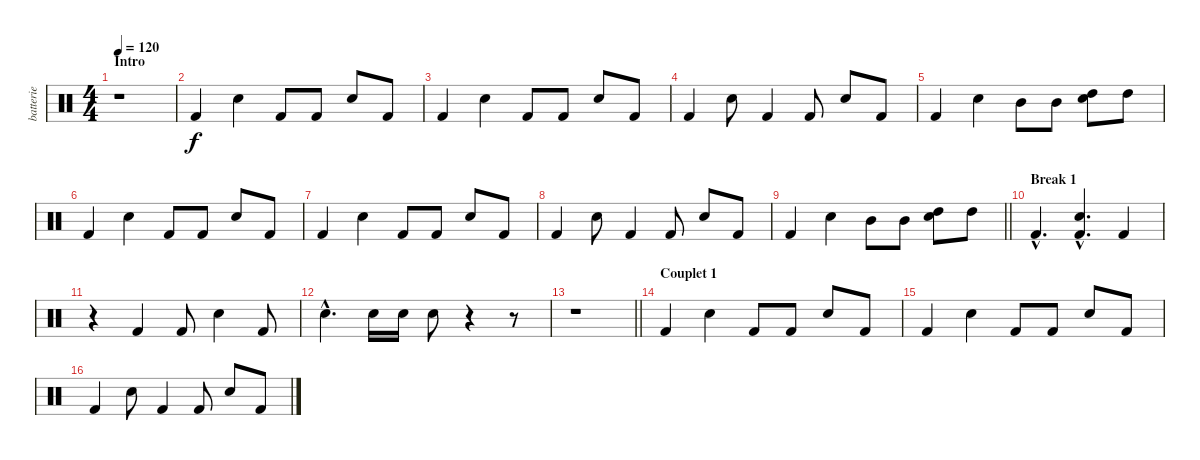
\track ("batterie" "batterie") {instrument percussion}
\staff {score}
\articulation defaults
\ts (4 4)
\section ("" "Intro")
\tempo 120
\clef neutral
\ks c
r.1{dy f} |
"Kick (hit) 2".4 "Electric Snare (hit)".4 "Kick (hit) 2".8 "Kick (hit) 2".8 "Electric Snare (hit)".8 "Kick (hit) 2".8 |
"Kick (hit) 2".4 "Electric Snare (hit)".4 "Kick (hit) 2".8 "Kick (hit) 2".8 "Electric Snare (hit)".8 "Kick (hit) 2".8 |
"Kick (hit) 2".4 "Electric Snare (hit)".8 "Kick (hit) 2".4 "Kick (hit) 2".8 "Electric Snare (hit)".8 "Kick (hit) 2".8 |
"Kick (hit) 2".4 "Electric Snare (hit)".4 "Mid Tom (hit)".8 "Mid Tom (hit)".8 ("Electric Snare (hit)" "High Tom (hit)").8 "High Tom (hit)".8 |
"Kick (hit) 2".4 "Electric Snare (hit)".4 "Kick (hit) 2".8 "Kick (hit) 2".8 "Electric Snare (hit)".8 "Kick (hit) 2".8 |
"Kick (hit) 2".4 "Electric Snare (hit)".4 "Kick (hit) 2".8 "Kick (hit) 2".8 "Electric Snare (hit)".8 "Kick (hit) 2".8 |
"Kick (hit) 2".4 "Electric Snare (hit)".8 "Kick (hit) 2".4 "Kick (hit) 2".8 "Electric Snare (hit)".8 "Kick (hit) 2".8 |
\barLineRight lightlight "Kick (hit) 2".4 "Electric Snare (hit)".4 "Mid Tom (hit)".8 "Mid Tom (hit)".8
("Electric Snare (hit)" "High Tom (hit)").8 "High Tom (hit)".8 |
\section ("" "Break 1")
"Kick (hit) 2"{hac}.4{d} ("Kick (hit) 2"{hac} "Electric Snare (hit)"{hac}).4{d} "Kick (hit) 2".4 |
r.4 "Kick (hit) 2".4 "Kick (hit) 2".8 "Electric Snare (hit)".4 "Kick (hit) 2".8 |
"Electric Snare (hit)"{hac}.4{d} "Electric Snare (hit)".16 "Electric Snare (hit)".16 "Electric Snare (hit)".8 r.4 r.8 |
\barLineRight lightlight
r.1 |
\section ("" "Couplet 1")
"Kick (hit) 2".4 "Electric Snare (hit)".4 "Kick (hit) 2".8 "Kick (hit) 2".8 "Electric Snare (hit)".8 "Kick (hit) 2".8 |
"Kick (hit) 2".4 "Electric Snare (hit)".4 "Kick (hit) 2".8 "Kick (hit) 2".8 "Electric Snare (hit)".8 "Kick (hit) 2".8 |
"Kick (hit) 2".4 "Electric Snare (hit)".8 "Kick (hit) 2".4 "Kick (hit) 2".8 "Electric Snare (hit)".8 "Kick (hit) 2".8
